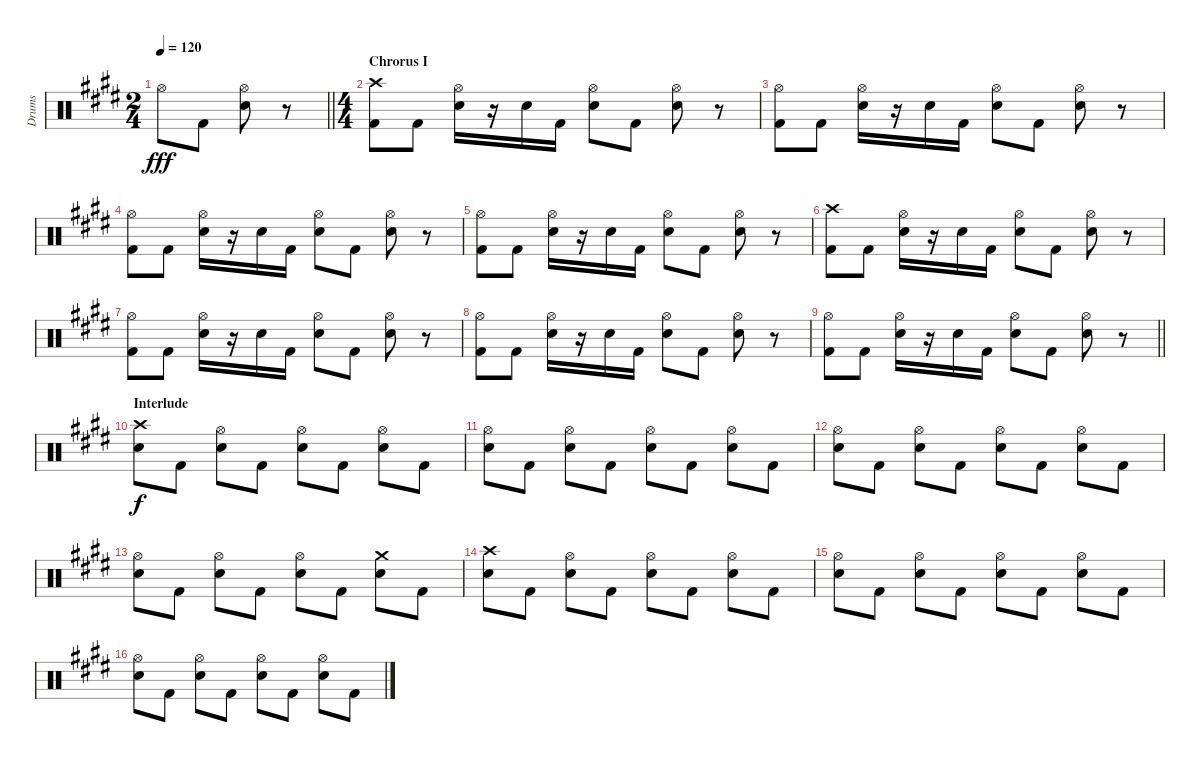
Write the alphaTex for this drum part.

\track ("Drums" "Drums") {instrument percussion}
\staff {score}
\articulation defaults
\ts (2 4)
\tempo 120
\clef neutral
\barLineRight lightlight
\ks e "Hi-Hat (open)".8{dy fff} "Kick (hit) 2".8
("Hi-Hat (open)" "Snare (hit) 2").8 r.8 |
\ts (4 4)
\section ("" "Chrorus I")
("Crash high (hit)" "Kick (hit) 2").8 "Kick (hit) 2".8 ("Hi-Hat (open)" "Snare (hit) 2").16 r.16 "Snare (hit) 2".16 "Kick (hit) 2".16 ("Hi-Hat (open)" "Snare (hit) 2").8 "Kick (hit) 2".8 ("Hi-Hat (open)" "Snare (hit) 2").8 r.8 |
("Hi-Hat (open)" "Kick (hit) 2").8 "Kick (hit) 2".8 ("Hi-Hat (open)" "Snare (hit) 2").16 r.16 "Snare (hit) 2".16 "Kick (hit) 2".16 ("Hi-Hat (open)" "Snare (hit) 2").8 "Kick (hit) 2".8 ("Hi-Hat (open)" "Snare (hit) 2").8 r.8 |
("Hi-Hat (open)" "Kick (hit) 2").8 "Kick (hit) 2".8 ("Hi-Hat (open)" "Snare (hit) 2").16 r.16 "Snare (hit) 2".16 "Kick (hit) 2".16 ("Hi-Hat (open)" "Snare (hit) 2").8 "Kick (hit) 2".8 ("Hi-Hat (open)" "Snare (hit) 2").8 r.8 |
("Hi-Hat (open)" "Kick (hit) 2").8 "Kick (hit) 2".8 ("Hi-Hat (open)" "Snare (hit) 2").16 r.16 "Snare (hit) 2".16 "Kick (hit) 2".16 ("Hi-Hat (open)" "Snare (hit) 2").8 "Kick (hit) 2".8 ("Hi-Hat (open)" "Snare (hit) 2").8 r.8 |
("Crash high (hit)" "Kick (hit) 2").8 "Kick (hit) 2".8 ("Hi-Hat (open)" "Snare (hit) 2").16 r.16 "Snare (hit) 2".16 "Kick (hit) 2".16 ("Hi-Hat (open)" "Snare (hit) 2").8 "Kick (hit) 2".8 ("Hi-Hat (open)" "Snare (hit) 2").8 r.8 |
("Hi-Hat (open)" "Kick (hit) 2").8 "Kick (hit) 2".8 ("Hi-Hat (open)" "Snare (hit) 2").16 r.16 "Snare (hit) 2".16 "Kick (hit) 2".16 ("Hi-Hat (open)" "Snare (hit) 2").8 "Kick (hit) 2".8 ("Hi-Hat (open)" "Snare (hit) 2").8 r.8 |
("Hi-Hat (open)" "Kick (hit) 2").8 "Kick (hit) 2".8 ("Hi-Hat (open)" "Snare (hit) 2").16 r.16 "Snare (hit) 2".16 "Kick (hit) 2".16 ("Hi-Hat (open)" "Snare (hit) 2").8 "Kick (hit) 2".8 ("Hi-Hat (open)" "Snare (hit) 2").8 r.8 |
\barLineRight lightlight
("Hi-Hat (open)" "Kick (hit) 2").8 "Kick (hit) 2".8 ("Hi-Hat (open)" "Snare (hit) 2").16 r.16 "Snare (hit) 2".16 "Kick (hit) 2".16 ("Hi-Hat (open)" "Snare (hit) 2").8 "Kick (hit) 2".8 ("Hi-Hat (open)" "Snare (hit) 2").8 r.8 |
\section ("" "Interlude")
("Crash high (hit)" "Snare (hit) 2").8{dy f} "Kick (hit) 2".8 ("Hi-Hat (open)" "Snare (hit) 2").8 "Kick (hit) 2".8 ("Hi-Hat (open)" "Snare (hit) 2").8 "Kick (hit) 2".8 ("Hi-Hat (open)" "Snare (hit) 2").8 "Kick (hit) 2".8 |
("Hi-Hat (open)" "Snare (hit) 2").8 "Kick (hit) 2".8 ("Hi-Hat (open)" "Snare (hit) 2").8 "Kick (hit) 2".8 ("Hi-Hat (open)" "Snare (hit) 2").8 "Kick (hit) 2".8 ("Hi-Hat (open)" "Snare (hit) 2").8 "Kick (hit) 2".8 |
("Hi-Hat (open)" "Snare (hit) 2").8 "Kick (hit) 2".8 ("Hi-Hat (open)" "Snare (hit) 2").8 "Kick (hit) 2".8 ("Hi-Hat (open)" "Snare (hit) 2").8 "Kick (hit) 2".8 ("Hi-Hat (open)" "Snare (hit) 2").8 "Kick (hit) 2".8 |
("Hi-Hat (open)" "Snare (hit) 2").8 "Kick (hit) 2".8 ("Hi-Hat (open)" "Snare (hit) 2").8 "Kick (hit) 2".8 ("Hi-Hat (open)" "Snare (hit) 2").8 "Kick (hit) 2".8 ("Crash medium (hit)" "Snare (hit) 2").8 "Kick (hit) 2".8 |
("Crash high (hit)" "Snare (hit) 2").8 "Kick (hit) 2".8 ("Hi-Hat (open)" "Snare (hit) 2").8 "Kick (hit) 2".8 ("Hi-Hat (open)" "Snare (hit) 2").8 "Kick (hit) 2".8 ("Hi-Hat (open)" "Snare (hit) 2").8 "Kick (hit) 2".8 |
("Hi-Hat (open)" "Snare (hit) 2").8 "Kick (hit) 2".8 ("Hi-Hat (open)" "Snare (hit) 2").8 "Kick (hit) 2".8 ("Hi-Hat (open)" "Snare (hit) 2").8 "Kick (hit) 2".8 ("Hi-Hat (open)" "Snare (hit) 2").8 "Kick (hit) 2".8 |
("Hi-Hat (open)" "Snare (hit) 2").8 "Kick (hit) 2".8 ("Hi-Hat (open)" "Snare (hit) 2").8 "Kick (hit) 2".8 ("Hi-Hat (open)" "Snare (hit) 2").8 "Kick (hit) 2".8 ("Hi-Hat (open)" "Snare (hit) 2").8 "Kick (hit) 2".8
